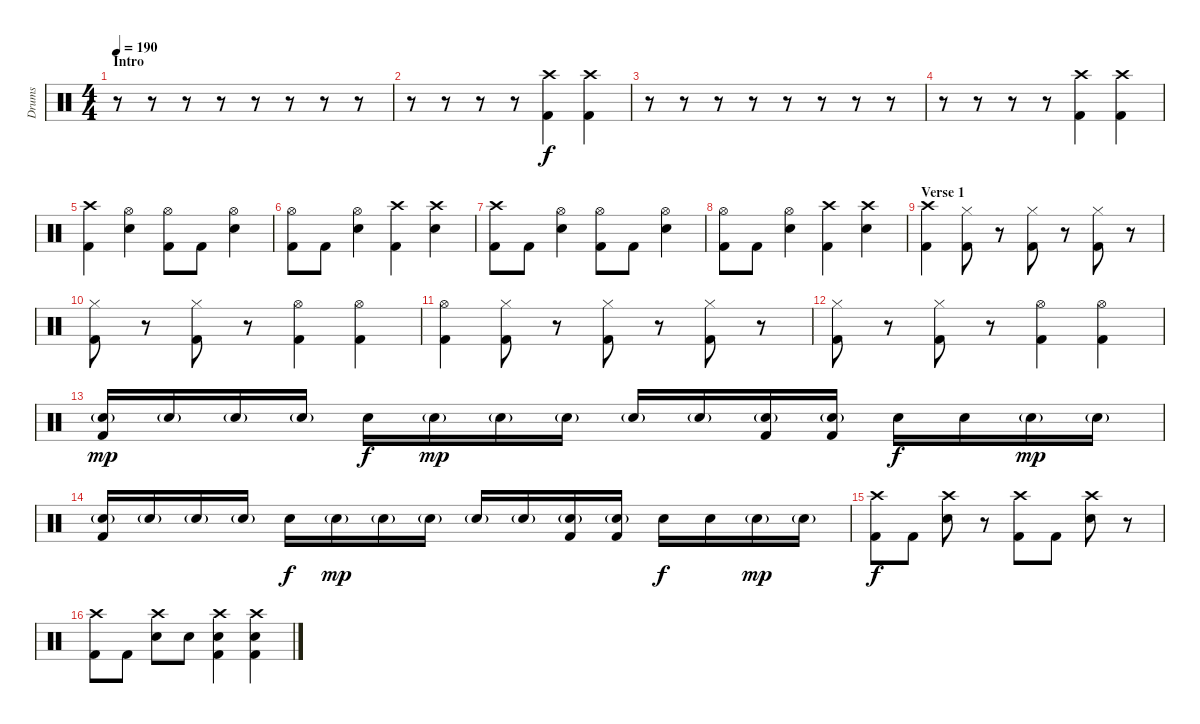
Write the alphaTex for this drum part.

\track ("Drums" "Drums") {instrument percussion}
\staff {score}
\articulation defaults
\ts (4 4)
\section ("" "Intro")
\tempo 190
\clef neutral
\ks c
r.8{dy f} r.8 r.8 r.8 r.8 r.8 r.8 r.8 |
r.8 r.8 r.8 r.8 ("Crash high (hit)" "Kick (hit) 2").4 ("Crash high (hit)" "Kick (hit) 2").4 |
r.8 r.8 r.8 r.8 r.8 r.8 r.8 r.8 |
r.8 r.8 r.8 r.8 ("Crash high (hit)" "Kick (hit) 2").4 ("Crash high (hit)" "Kick (hit) 2").4 |
("Crash high (hit)" "Kick (hit) 2").4 ("Hi-Hat (open)" "Snare (hit) 2").4 ("Hi-Hat (open)" "Kick (hit) 2").8 "Kick (hit) 2".8 ("Hi-Hat (open)" "Snare (hit) 2").4 |
("Hi-Hat (open)" "Kick (hit) 2").8 "Kick (hit) 2".8 ("Hi-Hat (open)" "Snare (hit) 2").4 ("Crash high (hit)" "Kick (hit) 2").4 ("Crash high (hit)" "Snare (hit) 2").4 |
("Crash high (hit)" "Kick (hit) 2").8 "Kick (hit) 2".8 ("Hi-Hat (open)" "Snare (hit) 2").4 ("Hi-Hat (open)" "Kick (hit) 2").8 "Kick (hit) 2".8 ("Hi-Hat (open)" "Snare (hit) 2").4 |
("Hi-Hat (open)" "Kick (hit) 2").8 "Kick (hit) 2".8 ("Hi-Hat (open)" "Snare (hit) 2").4 ("Crash high (hit)" "Kick (hit) 2").4 ("Crash high (hit)" "Snare (hit) 2").4 |
\section ("" "Verse 1")
("Crash high (hit)" "Kick (hit) 2").4 ("Hi-Hat (closed)" "Kick (hit) 2").8 r.8 ("Hi-Hat (closed)" "Kick (hit) 2").8 r.8 ("Hi-Hat (closed)" "Kick (hit) 2").8 r.8 |
("Hi-Hat (closed)" "Kick (hit) 2").8 r.8 ("Hi-Hat (closed)" "Kick (hit) 2").8 r.8 ("Hi-Hat (open)" "Kick (hit) 2").4 ("Hi-Hat (open)" "Kick (hit) 2").4 |
("Hi-Hat (open)" "Kick (hit) 2").4 ("Hi-Hat (closed)" "Kick (hit) 2").8 r.8 ("Hi-Hat (closed)" "Kick (hit) 2").8 r.8 ("Hi-Hat (closed)" "Kick (hit) 2").8 r.8 |
("Hi-Hat (closed)" "Kick (hit) 2").8 r.8 ("Hi-Hat (closed)" "Kick (hit) 2").8 r.8 ("Hi-Hat (open)" "Kick (hit) 2").4 ("Hi-Hat (open)" "Kick (hit) 2").4 |
("Snare (hit) 2"{g} "Kick (hit) 2").16{dy mp} "Snare (hit) 2"{g}.16 "Snare (hit) 2"{g}.16 "Snare (hit) 2"{g}.16 "Snare (hit) 2".16{dy f} "Snare (hit) 2"{g}.16{dy mp} "Snare (hit) 2"{g}.16 "Snare (hit) 2"{g}.16 "Snare (hit) 2"{g}.16 "Snare (hit) 2"{g}.16 ("Snare (hit) 2"{g} "Kick (hit) 2").16 ("Snare (hit) 2"{g} "Kick (hit) 2").16 "Snare (hit) 2".16{dy f} "Snare (hit) 2".16 "Snare (hit) 2"{g}.16{dy mp} "Snare (hit) 2"{g}.16 |
("Snare (hit) 2"{g} "Kick (hit) 2").16 "Snare (hit) 2"{g}.16 "Snare (hit) 2"{g}.16 "Snare (hit) 2"{g}.16 "Snare (hit) 2".16{dy f} "Snare (hit) 2"{g}.16{dy mp} "Snare (hit) 2"{g}.16 "Snare (hit) 2"{g}.16 "Snare (hit) 2"{g}.16 "Snare (hit) 2"{g}.16 ("Snare (hit) 2"{g} "Kick (hit) 2").16 ("Snare (hit) 2"{g} "Kick (hit) 2").16 "Snare (hit) 2".16{dy f} "Snare (hit) 2".16 "Snare (hit) 2"{g}.16{dy mp} "Snare (hit) 2"{g}.16 |
("Crash high (hit)" "Kick (hit) 2").8{dy f} "Kick (hit) 2".8 ("Crash high (hit)" "Snare (hit) 2").8 r.8 ("Crash high (hit)" "Kick (hit) 2").8 "Kick (hit) 2".8 ("Crash high (hit)" "Snare (hit) 2").8 r.8 |
("Crash high (hit)" "Kick (hit) 2").8 "Kick (hit) 2".8 ("Crash high (hit)" "Snare (hit) 2").8 "Snare (hit) 2".8 ("Crash high (hit)" "Snare (hit) 2" "Kick (hit) 2").4 ("Crash high (hit)" "Snare (hit) 2" "Kick (hit) 2").4
